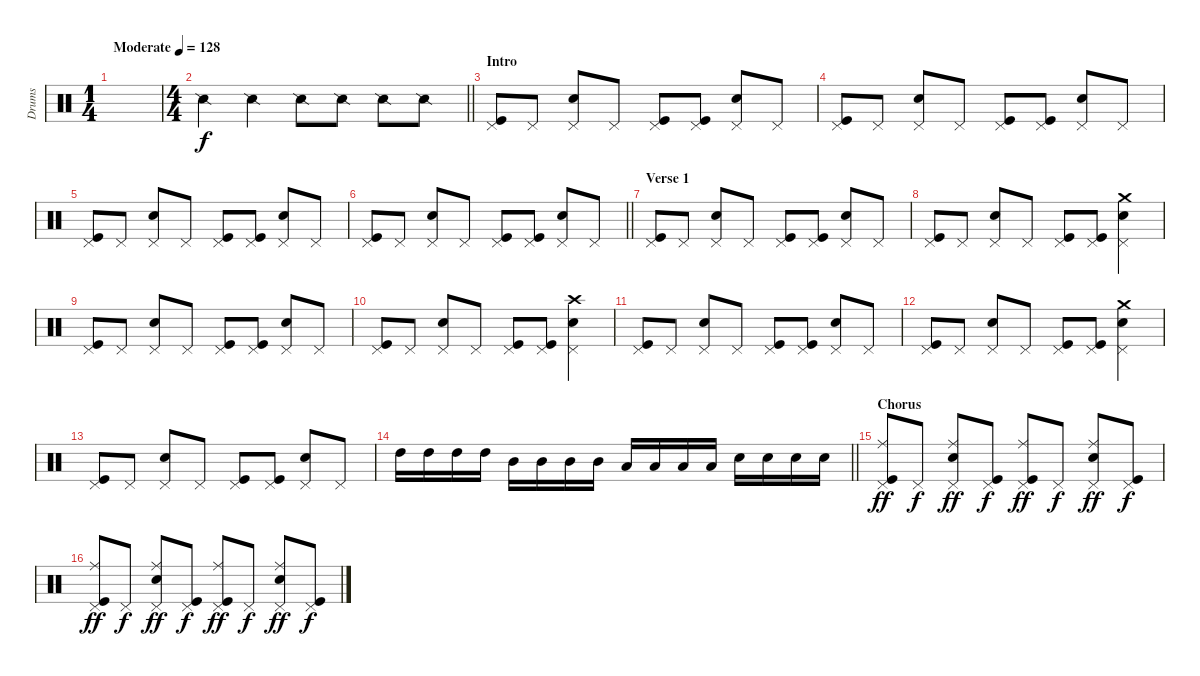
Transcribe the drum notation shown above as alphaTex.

\track ("Drums" "Drums") {instrument percussion}
\staff {score}
\articulation defaults
\ts (1 4)
\tempo (128 "Moderate")
\clef neutral
\ks c
|
\ts (4 4)
\barLineRight lightlight "Snare (side stick) 2".4 "Snare (side stick) 2".4 "Snare (side stick) 2".8 "Snare (side stick) 2".8 "Snare (side stick) 2".8 "Snare (side stick) 2".8
|
\section ("" "Intro")
("Pedal Hi-Hat (hit)" "Kick (hit)").8 "Pedal Hi-Hat (hit)".8 ("Snare (hit) 2" "Pedal Hi-Hat (hit)").8 "Pedal Hi-Hat (hit)".8 ("Pedal Hi-Hat (hit)" "Kick (hit)").8 ("Pedal Hi-Hat (hit)" "Kick (hit)").8 ("Snare (hit) 2" "Pedal Hi-Hat (hit)").8 "Pedal Hi-Hat (hit)".8 |
("Pedal Hi-Hat (hit)" "Kick (hit)").8 "Pedal Hi-Hat (hit)".8 ("Snare (hit) 2" "Pedal Hi-Hat (hit)").8 "Pedal Hi-Hat (hit)".8 ("Pedal Hi-Hat (hit)" "Kick (hit)").8 ("Pedal Hi-Hat (hit)" "Kick (hit)").8 ("Snare (hit) 2" "Pedal Hi-Hat (hit)").8 "Pedal Hi-Hat (hit)".8 |
("Pedal Hi-Hat (hit)" "Kick (hit)").8 "Pedal Hi-Hat (hit)".8 ("Snare (hit) 2" "Pedal Hi-Hat (hit)").8 "Pedal Hi-Hat (hit)".8 ("Pedal Hi-Hat (hit)" "Kick (hit)").8 ("Pedal Hi-Hat (hit)" "Kick (hit)").8 ("Snare (hit) 2" "Pedal Hi-Hat (hit)").8 "Pedal Hi-Hat (hit)".8 |
\barLineRight lightlight
("Pedal Hi-Hat (hit)" "Kick (hit)").8 "Pedal Hi-Hat (hit)".8 ("Snare (hit) 2" "Pedal Hi-Hat (hit)").8 "Pedal Hi-Hat (hit)".8 ("Pedal Hi-Hat (hit)" "Kick (hit)").8 ("Pedal Hi-Hat (hit)" "Kick (hit)").8 ("Snare (hit) 2" "Pedal Hi-Hat (hit)").8 "Pedal Hi-Hat (hit)".8 |
\section ("" "Verse 1")
("Pedal Hi-Hat (hit)" "Kick (hit)").8 "Pedal Hi-Hat (hit)".8 ("Snare (hit) 2" "Pedal Hi-Hat (hit)").8 "Pedal Hi-Hat (hit)".8 ("Pedal Hi-Hat (hit)" "Kick (hit)").8 ("Pedal Hi-Hat (hit)" "Kick (hit)").8 ("Snare (hit) 2" "Pedal Hi-Hat (hit)").8 "Pedal Hi-Hat (hit)".8 |
("Pedal Hi-Hat (hit)" "Kick (hit)").8 "Pedal Hi-Hat (hit)".8 ("Snare (hit) 2" "Pedal Hi-Hat (hit)").8 "Pedal Hi-Hat (hit)".8 ("Pedal Hi-Hat (hit)" "Kick (hit)").8 ("Pedal Hi-Hat (hit)" "Kick (hit)").8 ("Crash medium (hit)" "Snare (hit) 2" "Pedal Hi-Hat (hit)").4 |
("Pedal Hi-Hat (hit)" "Kick (hit)").8 "Pedal Hi-Hat (hit)".8 ("Snare (hit) 2" "Pedal Hi-Hat (hit)").8 "Pedal Hi-Hat (hit)".8 ("Pedal Hi-Hat (hit)" "Kick (hit)").8 ("Pedal Hi-Hat (hit)" "Kick (hit)").8 ("Snare (hit) 2" "Pedal Hi-Hat (hit)").8 "Pedal Hi-Hat (hit)".8 |
("Pedal Hi-Hat (hit)" "Kick (hit)").8 "Pedal Hi-Hat (hit)".8 ("Snare (hit) 2" "Pedal Hi-Hat (hit)").8 "Pedal Hi-Hat (hit)".8 ("Pedal Hi-Hat (hit)" "Kick (hit)").8 ("Pedal Hi-Hat (hit)" "Kick (hit)").8 ("Crash high (hit)" "Snare (hit) 2" "Pedal Hi-Hat (hit)").4 |
("Pedal Hi-Hat (hit)" "Kick (hit)").8 "Pedal Hi-Hat (hit)".8 ("Snare (hit) 2" "Pedal Hi-Hat (hit)").8 "Pedal Hi-Hat (hit)".8 ("Pedal Hi-Hat (hit)" "Kick (hit)").8 ("Pedal Hi-Hat (hit)" "Kick (hit)").8 ("Snare (hit) 2" "Pedal Hi-Hat (hit)").8 "Pedal Hi-Hat (hit)".8 |
("Pedal Hi-Hat (hit)" "Kick (hit)").8 "Pedal Hi-Hat (hit)".8 ("Snare (hit) 2" "Pedal Hi-Hat (hit)").8 "Pedal Hi-Hat (hit)".8 ("Pedal Hi-Hat (hit)" "Kick (hit)").8 ("Pedal Hi-Hat (hit)" "Kick (hit)").8 ("Crash medium (hit)" "Snare (hit) 2" "Pedal Hi-Hat (hit)").4 |
("Pedal Hi-Hat (hit)" "Kick (hit)").8 "Pedal Hi-Hat (hit)".8 ("Snare (hit) 2" "Pedal Hi-Hat (hit)").8 "Pedal Hi-Hat (hit)".8 ("Pedal Hi-Hat (hit)" "Kick (hit)").8 ("Pedal Hi-Hat (hit)" "Kick (hit)").8 ("Snare (hit) 2" "Pedal Hi-Hat (hit)").8 "Pedal Hi-Hat (hit)".8 |
\barLineRight lightlight "High Tom (hit)".16 "High Tom (hit)".16 "High Tom (hit)".16 "High Tom (hit)".16 "Mid Tom (hit)".16 "Mid Tom (hit)".16 "Mid Tom (hit)".16 "Mid Tom (hit)".16 "Low Tom (hit)".16 "Low Tom (hit)".16 "Low Tom (hit)".16 "Low Tom (hit)".16 "Snare (hit) 2".16 "Snare (hit) 2".16 "Snare (hit) 2".16 "Snare (hit) 2".16
|
\section ("" "Chorus")
("Ride (middle)" "Pedal Hi-Hat (hit)" "Kick (hit)").8{dy ff} "Pedal Hi-Hat (hit)".8{dy f} ("Ride (middle)" "Snare (hit) 2" "Pedal Hi-Hat (hit)").8{dy ff} ("Pedal Hi-Hat (hit)" "Kick (hit)").8{dy f} ("Ride (middle)" "Pedal Hi-Hat (hit)" "Kick (hit)").8{dy ff} "Pedal Hi-Hat (hit)".8{dy f} ("Ride (middle)" "Snare (hit) 2" "Pedal Hi-Hat (hit)").8{dy ff} ("Pedal Hi-Hat (hit)" "Kick (hit)").8{dy f} |
("Ride (middle)" "Pedal Hi-Hat (hit)" "Kick (hit)").8{dy ff} "Pedal Hi-Hat (hit)".8{dy f} ("Ride (middle)" "Snare (hit) 2" "Pedal Hi-Hat (hit)").8{dy ff} ("Pedal Hi-Hat (hit)" "Kick (hit)").8{dy f} ("Ride (middle)" "Pedal Hi-Hat (hit)" "Kick (hit)").8{dy ff} "Pedal Hi-Hat (hit)".8{dy f} ("Ride (middle)" "Snare (hit) 2" "Pedal Hi-Hat (hit)").8{dy ff} ("Pedal Hi-Hat (hit)" "Kick (hit)").8{dy f}
